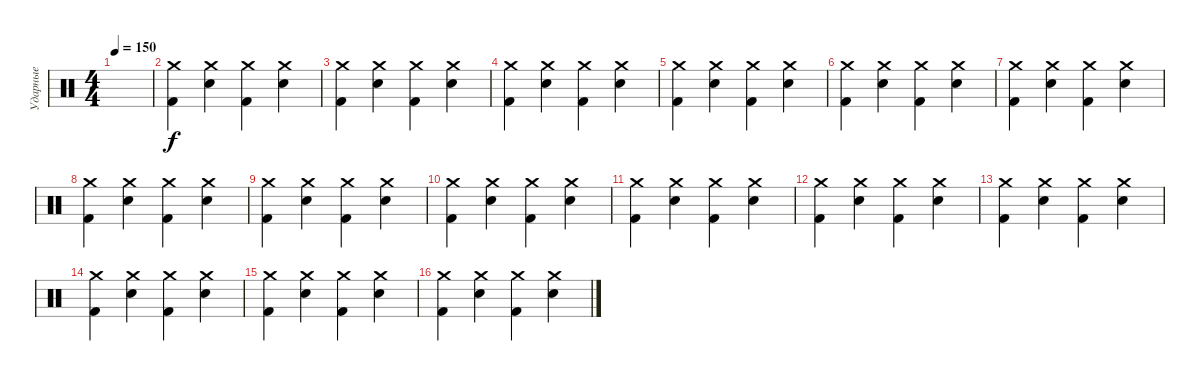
\track ("Ударные" "Ударные") {instrument percussion}
\staff {score}
\articulation defaults
\ts (4 4)
\tempo 150
\clef neutral
\ks c
|
("Crash medium (hit)" "Kick (hit) 2").4 ("Crash medium (hit)" "Electric Snare (hit)").4 ("Crash medium (hit)" "Kick (hit) 2").4 ("Crash medium (hit)" "Electric Snare (hit)").4 |
("Crash medium (hit)" "Kick (hit) 2").4 ("Crash medium (hit)" "Electric Snare (hit)").4 ("Crash medium (hit)" "Kick (hit) 2").4 ("Crash medium (hit)" "Electric Snare (hit)").4 |
("Crash medium (hit)" "Kick (hit) 2").4 ("Crash medium (hit)" "Electric Snare (hit)").4 ("Crash medium (hit)" "Kick (hit) 2").4 ("Crash medium (hit)" "Electric Snare (hit)").4 |
("Crash medium (hit)" "Kick (hit) 2").4 ("Crash medium (hit)" "Electric Snare (hit)").4 ("Crash medium (hit)" "Kick (hit) 2").4 ("Crash medium (hit)" "Electric Snare (hit)").4 |
("Crash medium (hit)" "Kick (hit) 2").4 ("Crash medium (hit)" "Electric Snare (hit)").4 ("Crash medium (hit)" "Kick (hit) 2").4 ("Crash medium (hit)" "Electric Snare (hit)").4 |
("Crash medium (hit)" "Kick (hit) 2").4 ("Crash medium (hit)" "Electric Snare (hit)").4 ("Crash medium (hit)" "Kick (hit) 2").4 ("Crash medium (hit)" "Electric Snare (hit)").4 |
("Crash medium (hit)" "Kick (hit) 2").4 ("Crash medium (hit)" "Electric Snare (hit)").4 ("Crash medium (hit)" "Kick (hit) 2").4 ("Crash medium (hit)" "Electric Snare (hit)").4 |
("Crash medium (hit)" "Kick (hit) 2").4 ("Crash medium (hit)" "Electric Snare (hit)").4 ("Crash medium (hit)" "Kick (hit) 2").4 ("Crash medium (hit)" "Electric Snare (hit)").4 |
("Crash medium (hit)" "Kick (hit) 2").4 ("Crash medium (hit)" "Electric Snare (hit)").4 ("Crash medium (hit)" "Kick (hit) 2").4 ("Crash medium (hit)" "Electric Snare (hit)").4 |
("Crash medium (hit)" "Kick (hit) 2").4 ("Crash medium (hit)" "Electric Snare (hit)").4 ("Crash medium (hit)" "Kick (hit) 2").4 ("Crash medium (hit)" "Electric Snare (hit)").4 |
("Crash medium (hit)" "Kick (hit) 2").4 ("Crash medium (hit)" "Electric Snare (hit)").4 ("Crash medium (hit)" "Kick (hit) 2").4 ("Crash medium (hit)" "Electric Snare (hit)").4 |
("Crash medium (hit)" "Kick (hit) 2").4 ("Crash medium (hit)" "Electric Snare (hit)").4 ("Crash medium (hit)" "Kick (hit) 2").4 ("Crash medium (hit)" "Electric Snare (hit)").4 |
("Crash medium (hit)" "Kick (hit) 2").4 ("Crash medium (hit)" "Electric Snare (hit)").4 ("Crash medium (hit)" "Kick (hit) 2").4 ("Crash medium (hit)" "Electric Snare (hit)").4 |
("Crash medium (hit)" "Kick (hit) 2").4 ("Crash medium (hit)" "Electric Snare (hit)").4 ("Crash medium (hit)" "Kick (hit) 2").4 ("Crash medium (hit)" "Electric Snare (hit)").4 |
("Crash medium (hit)" "Kick (hit) 2").4 ("Crash medium (hit)" "Electric Snare (hit)").4 ("Crash medium (hit)" "Kick (hit) 2").4 ("Crash medium (hit)" "Electric Snare (hit)").4
